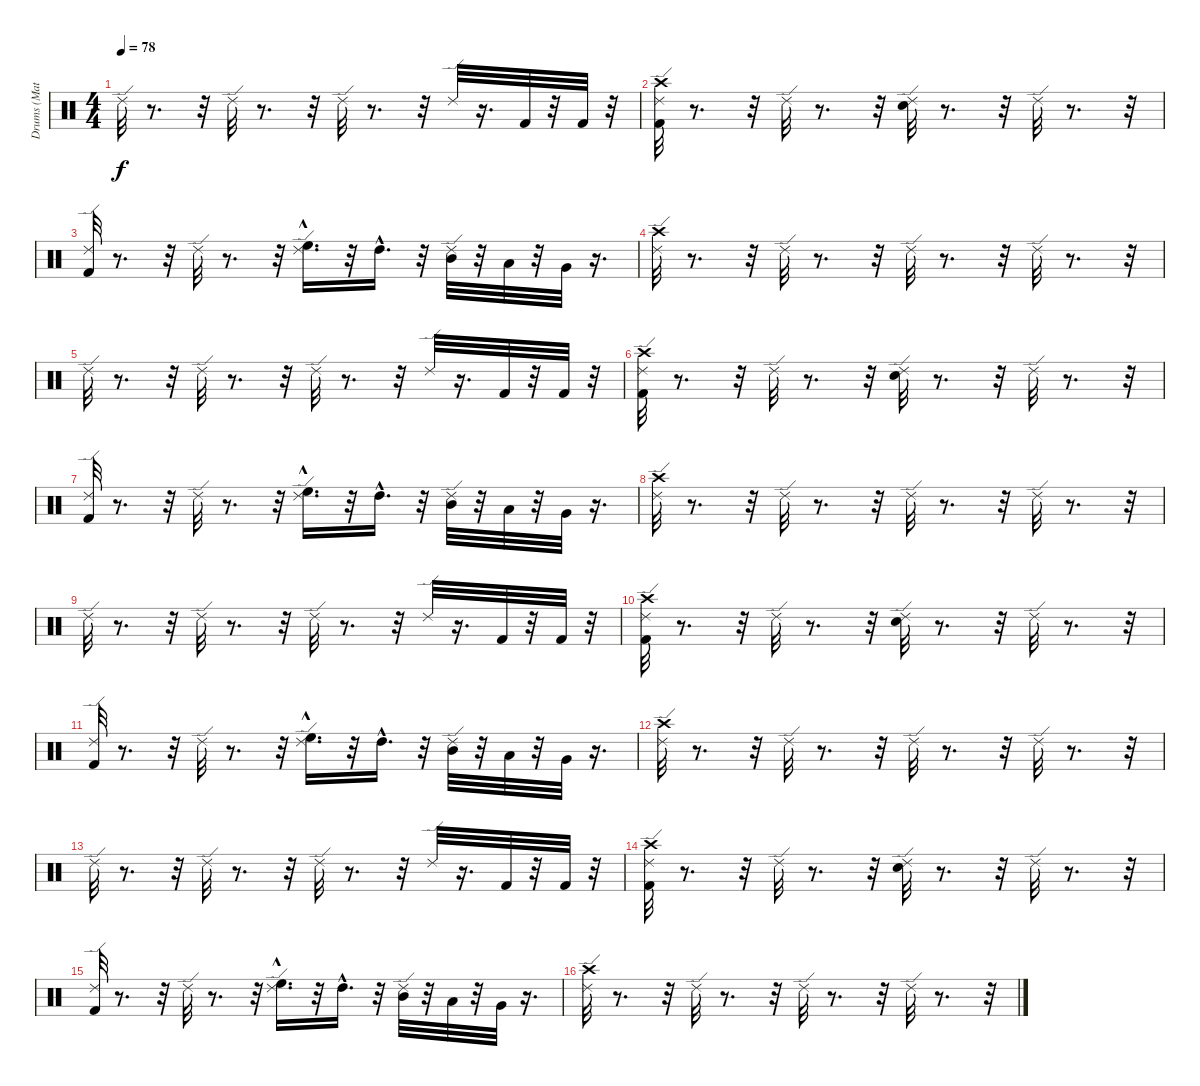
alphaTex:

\track ("Drums (Matt)" "Drums (Mat") {instrument percussion}
\staff {score}
\articulation defaults
\ts (4 4)
\tempo 78
\clef neutral
\ks c "Ride (edge) 2".32{dy f}
r.8{d} r.32 "Ride (edge) 2".32 r.8{d} r.32 "Ride (edge) 2".32 r.8{d} r.32 "Ride (edge) 2".32 r.16{d} "Kick (hit) 2".32 r.32 "Kick (hit) 2".32 r.32 |
("Ride (edge) 2" "Kick (hit) 2" "Crash high (hit)").32 r.8{d} r.32 "Ride (edge) 2".32 r.8{d} r.32 ("Ride (edge) 2" "Snare (hit) 2").32 r.8{d} r.32 "Ride (edge) 2".32 r.8{d} r.32 |
("Ride (edge) 2" "Kick (hit) 2").32 r.8{d} r.32 "Ride (edge) 2".32 r.8{d} r.32 ("Ride (edge) 2" "High Floor Tom (hit)"{hac}).16{d} r.32 "High Tom (hit)"{hac}.16{d} r.32 ("Ride (edge) 2" "Mid Tom (hit)").32 r.32 "Low Tom (hit)".32 r.32 "Very Low Tom (hit)".32 r.16{d} |
("Ride (edge) 2" "Crash high (hit)").32 r.8{d} r.32 "Ride (edge) 2".32 r.8{d} r.32 "Ride (edge) 2".32 r.8{d} r.32 "Ride (edge) 2".32 r.8{d} r.32 |
"Ride (edge) 2".32 r.8{d} r.32 "Ride (edge) 2".32 r.8{d} r.32 "Ride (edge) 2".32 r.8{d} r.32 "Ride (edge) 2".32 r.16{d} "Kick (hit) 2".32 r.32 "Kick (hit) 2".32 r.32 |
("Ride (edge) 2" "Kick (hit) 2" "Crash high (hit)").32 r.8{d} r.32 "Ride (edge) 2".32 r.8{d} r.32 ("Ride (edge) 2" "Snare (hit) 2").32 r.8{d} r.32 "Ride (edge) 2".32 r.8{d} r.32 |
("Ride (edge) 2" "Kick (hit) 2").32 r.8{d} r.32 "Ride (edge) 2".32 r.8{d} r.32 ("Ride (edge) 2" "High Floor Tom (hit)"{hac}).16{d} r.32 "High Tom (hit)"{hac}.16{d} r.32 ("Ride (edge) 2" "Mid Tom (hit)").32 r.32 "Low Tom (hit)".32 r.32 "Very Low Tom (hit)".32 r.16{d} |
("Ride (edge) 2" "Crash high (hit)").32 r.8{d} r.32 "Ride (edge) 2".32 r.8{d} r.32 "Ride (edge) 2".32 r.8{d} r.32 "Ride (edge) 2".32 r.8{d} r.32 |
"Ride (edge) 2".32 r.8{d} r.32 "Ride (edge) 2".32 r.8{d} r.32 "Ride (edge) 2".32 r.8{d} r.32 "Ride (edge) 2".32 r.16{d} "Kick (hit) 2".32 r.32 "Kick (hit) 2".32 r.32 |
("Ride (edge) 2" "Kick (hit) 2" "Crash high (hit)").32 r.8{d} r.32 "Ride (edge) 2".32 r.8{d} r.32 ("Ride (edge) 2" "Snare (hit) 2").32 r.8{d} r.32 "Ride (edge) 2".32 r.8{d} r.32 |
("Ride (edge) 2" "Kick (hit) 2").32 r.8{d} r.32 "Ride (edge) 2".32 r.8{d} r.32 ("Ride (edge) 2" "High Floor Tom (hit)"{hac}).16{d} r.32 "High Tom (hit)"{hac}.16{d} r.32 ("Ride (edge) 2" "Mid Tom (hit)").32 r.32 "Low Tom (hit)".32 r.32 "Very Low Tom (hit)".32 r.16{d} |
("Ride (edge) 2" "Crash high (hit)").32 r.8{d} r.32 "Ride (edge) 2".32 r.8{d} r.32 "Ride (edge) 2".32 r.8{d} r.32 "Ride (edge) 2".32 r.8{d} r.32 |
"Ride (edge) 2".32 r.8{d} r.32 "Ride (edge) 2".32 r.8{d} r.32 "Ride (edge) 2".32 r.8{d} r.32 "Ride (edge) 2".32 r.16{d} "Kick (hit) 2".32 r.32 "Kick (hit) 2".32 r.32 |
("Ride (edge) 2" "Kick (hit) 2" "Crash high (hit)").32 r.8{d} r.32 "Ride (edge) 2".32 r.8{d} r.32 ("Ride (edge) 2" "Snare (hit) 2").32 r.8{d} r.32 "Ride (edge) 2".32 r.8{d} r.32 |
("Ride (edge) 2" "Kick (hit) 2").32 r.8{d} r.32 "Ride (edge) 2".32 r.8{d} r.32 ("Ride (edge) 2" "High Floor Tom (hit)"{hac}).16{d} r.32 "High Tom (hit)"{hac}.16{d} r.32 ("Ride (edge) 2" "Mid Tom (hit)").32 r.32 "Low Tom (hit)".32 r.32 "Very Low Tom (hit)".32 r.16{d} |
("Ride (edge) 2" "Crash high (hit)").32 r.8{d} r.32 "Ride (edge) 2".32 r.8{d} r.32 "Ride (edge) 2".32 r.8{d} r.32 "Ride (edge) 2".32 r.8{d} r.32
